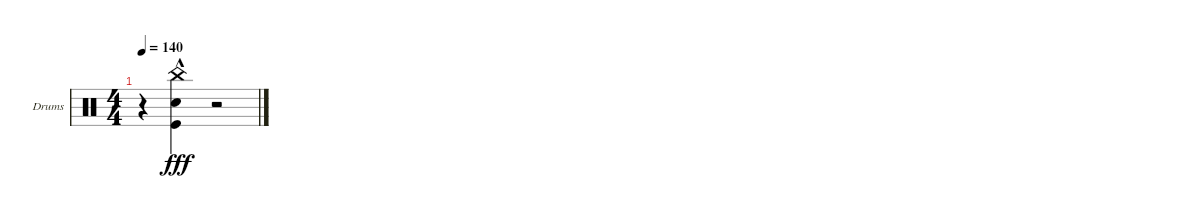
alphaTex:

\defaultSystemsLayout 4
\bracketExtendMode groupsimilarinstruments
\firstSystemTrackNameOrientation horizontal
\otherSystemsTrackNameOrientation horizontal
\track ("Drumkit" "Drums") {instrument percussion}
\staff {score}
\articulation defaults
\ts (4 4)
\tempo 140
\clef neutral
\ks c
r.4{dy fff} ("Kick (hit)" "Snare (hit) 2" "China (hit)"{hac}).4 r.2
